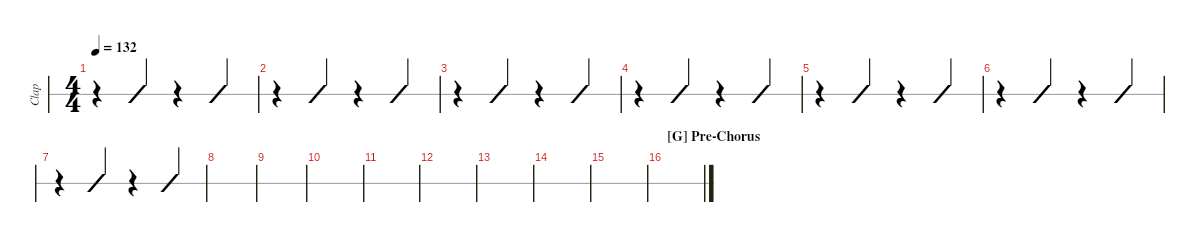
\defaultSystemsLayout 4
\hideDynamics
\bracketExtendMode nobrackets
\otherSystemsTrackNameOrientation horizontal
\track ("Hand Clap" "Clap") {instrument percussion}
\staff {slash}
\articulation defaults
\ts (4 4)
\tempo 132
\clef neutral
\ks eb
r.4{dy mf} "Kick (hit)".4 r.4 "Kick (hit)".4 |
r.4 "Kick (hit)".4 r.4 "Kick (hit)".4 |
r.4 "Kick (hit)".4 r.4 "Kick (hit)".4 |
r.4 "Kick (hit)".4 r.4 "Kick (hit)".4 |
r.4 "Kick (hit)".4 r.4 "Kick (hit)".4 |
r.4 "Kick (hit)".4 r.4 "Kick (hit)".4 |
r.4 "Kick (hit)".4 r.4 "Kick (hit)".4 |
|
|
|
|
|
|
|
|
\section ("G" "Pre-Chorus")
